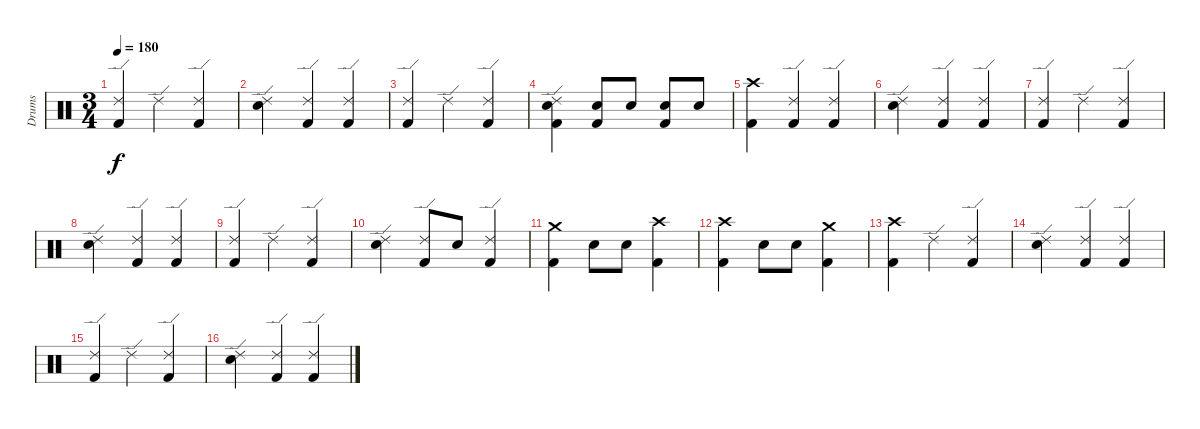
\track ("Drums" "Drums") {instrument percussion}
\staff {score}
\articulation defaults
\ts (3 4)
\tempo 180
\clef neutral
\ks c
("Ride (edge) 2" "Kick (hit) 2").4{dy f} "Ride (edge) 2".4 ("Ride (edge) 2" "Kick (hit) 2").4 |
("Ride (edge) 2" "Electric Snare (hit)").4 ("Ride (edge) 2" "Kick (hit) 2").4 ("Ride (edge) 2" "Kick (hit) 2").4 |
("Ride (edge) 2" "Kick (hit) 2").4 "Ride (edge) 2".4 ("Ride (edge) 2" "Kick (hit) 2").4 |
("Ride (edge) 2" "Electric Snare (hit)" "Kick (hit) 2").4 ("Electric Snare (hit)" "Kick (hit) 2").8 "Electric Snare (hit)".8 ("Electric Snare (hit)" "Kick (hit) 2").8 "Electric Snare (hit)".8 |
("Crash high (hit)" "Kick (hit) 2").4 ("Ride (edge) 2" "Kick (hit) 2").4 ("Ride (edge) 2" "Kick (hit) 2").4 |
("Ride (edge) 2" "Electric Snare (hit)").4 ("Ride (edge) 2" "Kick (hit) 2").4 ("Ride (edge) 2" "Kick (hit) 2").4 |
("Ride (edge) 2" "Kick (hit) 2").4 "Ride (edge) 2".4 ("Ride (edge) 2" "Kick (hit) 2").4 |
("Ride (edge) 2" "Electric Snare (hit)").4 ("Ride (edge) 2" "Kick (hit) 2").4 ("Ride (edge) 2" "Kick (hit) 2").4 |
("Ride (edge) 2" "Kick (hit) 2").4 "Ride (edge) 2".4 ("Ride (edge) 2" "Kick (hit) 2").4 |
("Ride (edge) 2" "Electric Snare (hit)").4 ("Ride (edge) 2" "Kick (hit) 2").8 "Electric Snare (hit)".8 ("Ride (edge) 2" "Kick (hit) 2").4 |
("Crash medium (hit)" "Kick (hit) 2").4 "Electric Snare (hit)".8 "Electric Snare (hit)".8 ("Crash high (hit)" "Kick (hit) 2").4 |
("Crash high (hit)" "Kick (hit) 2").4 "Electric Snare (hit)".8 "Electric Snare (hit)".8 ("Crash medium (hit)" "Kick (hit) 2").4 |
("Crash high (hit)" "Kick (hit) 2").4 "Ride (edge) 2".4 ("Ride (edge) 2" "Kick (hit) 2").4 |
("Ride (edge) 2" "Electric Snare (hit)").4 ("Ride (edge) 2" "Kick (hit) 2").4 ("Ride (edge) 2" "Kick (hit) 2").4 |
("Ride (edge) 2" "Kick (hit) 2").4 "Ride (edge) 2".4 ("Ride (edge) 2" "Kick (hit) 2").4 |
("Ride (edge) 2" "Electric Snare (hit)").4 ("Ride (edge) 2" "Kick (hit) 2").4 ("Ride (edge) 2" "Kick (hit) 2").4
